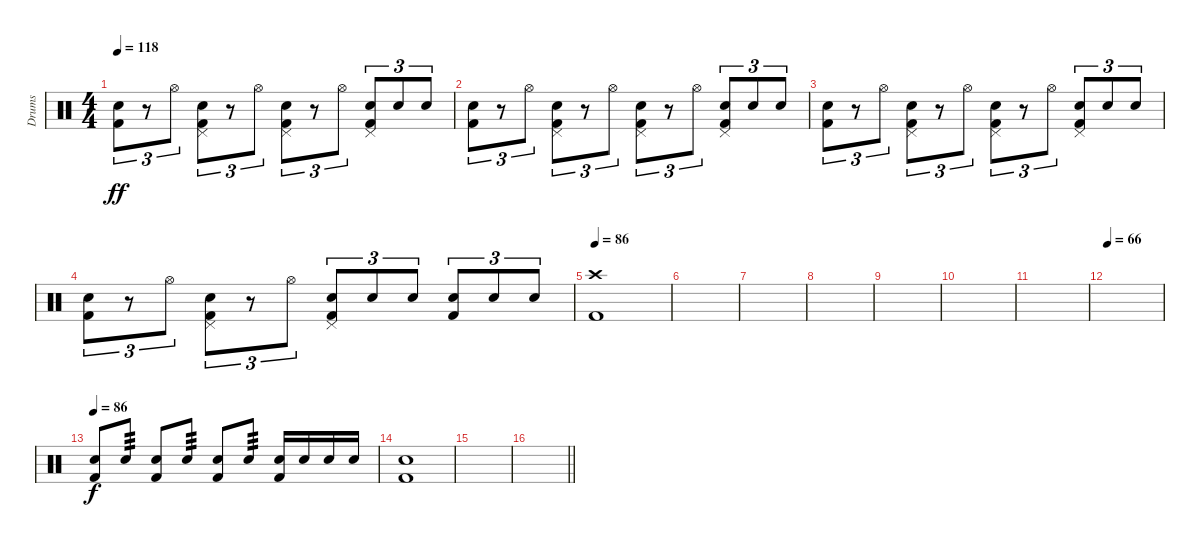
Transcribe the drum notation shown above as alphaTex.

\track ("Drums" "Drums") {instrument percussion}
\staff {score}
\articulation defaults
\ts (4 4)
\tempo 118
\clef neutral
\ks c
("Snare (hit) 2" "Kick (hit) 2").8{tu (3 2) dy ff} r.8{tu (3 2)} "Hi-Hat (open)".8{tu (3 2)} ("Pedal Hi-Hat (hit)" "Snare (hit) 2" "Kick (hit) 2").8{tu (3 2)} r.8{tu (3 2)} "Hi-Hat (open)".8{tu (3 2)} ("Pedal Hi-Hat (hit)" "Snare (hit) 2" "Kick (hit) 2").8{tu (3 2)} r.8{tu (3 2)} "Hi-Hat (open)".8{tu (3 2)} ("Pedal Hi-Hat (hit)" "Snare (hit) 2" "Kick (hit) 2").8{tu (3 2)} "Snare (hit) 2".8{tu (3 2)} "Snare (hit) 2".8{tu (3 2)} |
("Snare (hit) 2" "Kick (hit) 2").8{tu (3 2)} r.8{tu (3 2)} "Hi-Hat (open)".8{tu (3 2)} ("Pedal Hi-Hat (hit)" "Snare (hit) 2" "Kick (hit) 2").8{tu (3 2)} r.8{tu (3 2)} "Hi-Hat (open)".8{tu (3 2)} ("Pedal Hi-Hat (hit)" "Snare (hit) 2" "Kick (hit) 2").8{tu (3 2)} r.8{tu (3 2)} "Hi-Hat (open)".8{tu (3 2)} ("Pedal Hi-Hat (hit)" "Snare (hit) 2" "Kick (hit) 2").8{tu (3 2)} "Snare (hit) 2".8{tu (3 2)} "Snare (hit) 2".8{tu (3 2)} |
("Snare (hit) 2" "Kick (hit) 2").8{tu (3 2)} r.8{tu (3 2)} "Hi-Hat (open)".8{tu (3 2)} ("Pedal Hi-Hat (hit)" "Snare (hit) 2" "Kick (hit) 2").8{tu (3 2)} r.8{tu (3 2)} "Hi-Hat (open)".8{tu (3 2)} ("Pedal Hi-Hat (hit)" "Snare (hit) 2" "Kick (hit) 2").8{tu (3 2)} r.8{tu (3 2)} "Hi-Hat (open)".8{tu (3 2)} ("Pedal Hi-Hat (hit)" "Snare (hit) 2" "Kick (hit) 2").8{tu (3 2)} "Snare (hit) 2".8{tu (3 2)} "Snare (hit) 2".8{tu (3 2)} |
("Snare (hit) 2" "Kick (hit) 2").8{tu (3 2)} r.8{tu (3 2)} "Hi-Hat (open)".8{tu (3 2)} ("Pedal Hi-Hat (hit)" "Snare (hit) 2" "Kick (hit) 2").8{tu (3 2)} r.8{tu (3 2)} "Hi-Hat (open)".8{tu (3 2)} ("Pedal Hi-Hat (hit)" "Snare (hit) 2" "Kick (hit) 2").8{tu (3 2)} "Snare (hit) 2".8{tu (3 2)} "Snare (hit) 2".8{tu (3 2)} ("Snare (hit) 2" "Kick (hit) 2").8{tu (3 2)} "Snare (hit) 2".8{tu (3 2)} "Snare (hit) 2".8{tu (3 2)} |
\tempo 86
("Crash high (hit)" "Kick (hit) 2").1 |
|
|
|
|
|
|
\tempo 66
|
\tempo 86
("Snare (hit) 2" "Kick (hit) 2").8{dy f} "Snare (hit) 2".8{tp 3} ("Snare (hit) 2" "Kick (hit) 2").8 "Snare (hit) 2".8{tp 3} ("Snare (hit) 2" "Kick (hit) 2").8 "Snare (hit) 2".8{tp 3} ("Snare (hit) 2" "Kick (hit) 2").16 "Snare (hit) 2".16 "Snare (hit) 2".16 "Snare (hit) 2".16 |
("Snare (hit) 2" "Kick (hit) 2").1 |
|
\barLineRight lightlight
